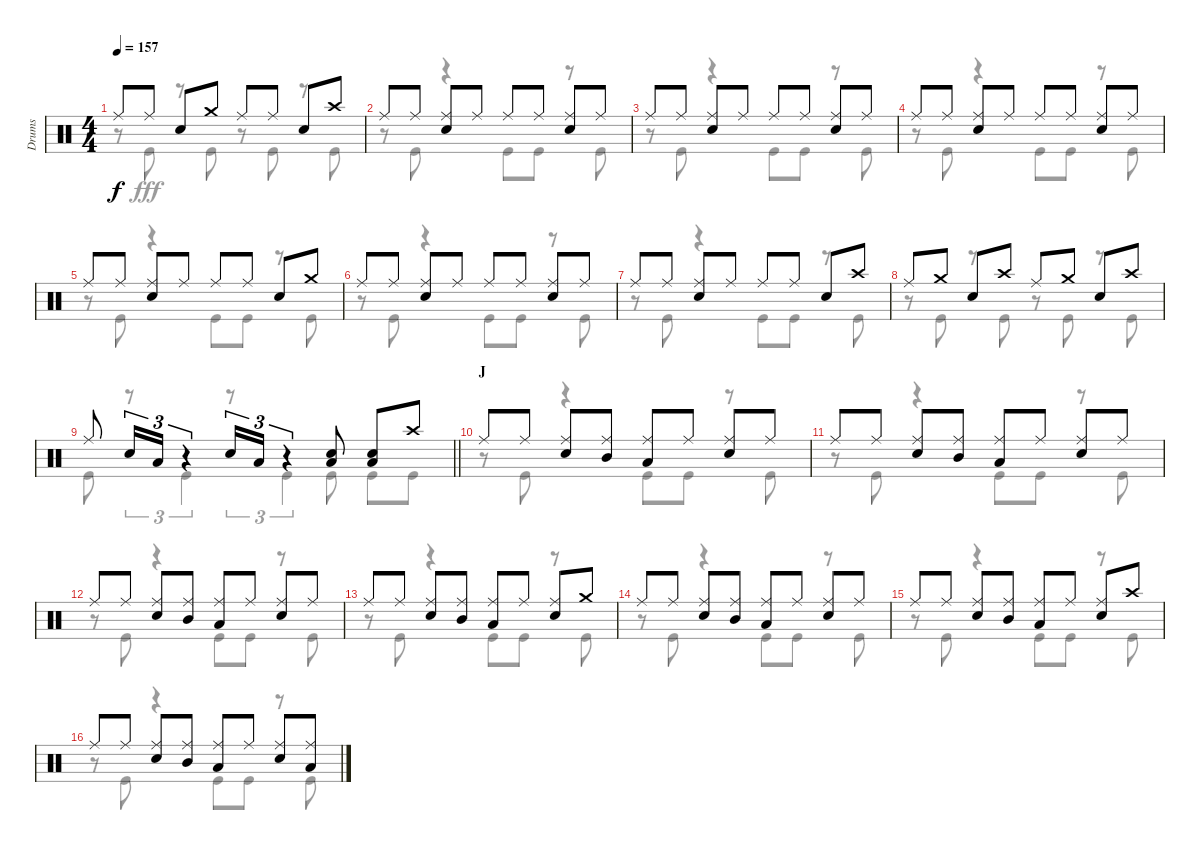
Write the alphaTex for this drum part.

\track ("Drums" "Drums") {instrument percussion}
\staff {score}
\articulation defaults
\voice
\ts (4 4)
\tempo 157
\clef neutral
\ks c "Ride (middle)".8{dy f} "Ride (middle)".8 "Snare (hit) 2".8 "Crash medium (hit)".8 "Ride (middle)".8 "Ride (middle)".8 "Snare (hit) 2".8 "Crash high (hit)".8
|
"Ride (middle)".8 "Ride (middle)".8 ("Ride (middle)" "Snare (hit) 2").8 "Ride (middle)".8 "Ride (middle)".8 "Ride (middle)".8 ("Ride (middle)" "Snare (hit) 2").8 "Ride (middle)".8 |
"Ride (middle)".8 "Ride (middle)".8 ("Ride (middle)" "Snare (hit) 2").8 "Ride (middle)".8 "Ride (middle)".8 "Ride (middle)".8 ("Ride (middle)" "Snare (hit) 2").8 "Ride (middle)".8 |
"Ride (middle)".8 "Ride (middle)".8 ("Ride (middle)" "Snare (hit) 2").8 "Ride (middle)".8 "Ride (middle)".8 "Ride (middle)".8 ("Ride (middle)" "Snare (hit) 2").8 "Ride (middle)".8 |
"Ride (middle)".8 "Ride (middle)".8 ("Ride (middle)" "Snare (hit) 2").8 "Ride (middle)".8 "Ride (middle)".8 "Ride (middle)".8 "Snare (hit) 2".8 "Crash medium (hit)".8 |
"Ride (middle)".8 "Ride (middle)".8 ("Ride (middle)" "Snare (hit) 2").8 "Ride (middle)".8 "Ride (middle)".8 "Ride (middle)".8 ("Ride (middle)" "Snare (hit) 2").8 "Ride (middle)".8 |
"Ride (middle)".8 "Ride (middle)".8 ("Ride (middle)" "Snare (hit) 2").8 "Ride (middle)".8 "Ride (middle)".8 "Ride (middle)".8 "Snare (hit) 2".8 "Crash high (hit)".8 |
"Ride (middle)".8 "Crash medium (hit)".8 "Snare (hit) 2".8 "Crash high (hit)".8 "Ride (middle)".8 "Crash medium (hit)".8 "Snare (hit) 2".8 "Crash high (hit)".8 |
\barLineRight lightlight "Ride (middle)".8 "Snare (hit) 2".16{tu (3 2)} "Low Tom (hit)".16{tu (3 2)}
r.4{tu (3 2)} "Snare (hit) 2".16{tu (3 2)} "Low Tom (hit)".16{tu (3 2)} r.4{tu (3 2)} ("Snare (hit) 2" "Low Tom (hit)").8 ("Snare (hit) 2" "Low Tom (hit)").8 "Crash high (hit)".8 |
\section ("" "J")
"Ride (middle)".8 "Ride (middle)".8 ("Ride (middle)" "Snare (hit) 2").8 ("Ride (middle)" "Mid Tom (hit)").8 ("Ride (middle)" "Low Tom (hit)").8 "Ride (middle)".8 ("Ride (middle)" "Snare (hit) 2").8 "Ride (middle)".8 |
"Ride (middle)".8 "Ride (middle)".8 ("Ride (middle)" "Snare (hit) 2").8 ("Ride (middle)" "Mid Tom (hit)").8 ("Ride (middle)" "Low Tom (hit)").8 "Ride (middle)".8 ("Ride (middle)" "Snare (hit) 2").8 "Ride (middle)".8 |
"Ride (middle)".8 "Ride (middle)".8 ("Ride (middle)" "Snare (hit) 2").8 ("Ride (middle)" "Mid Tom (hit)").8 ("Ride (middle)" "Low Tom (hit)").8 "Ride (middle)".8 ("Ride (middle)" "Snare (hit) 2").8 "Ride (middle)".8 |
"Ride (middle)".8 "Ride (middle)".8 ("Ride (middle)" "Snare (hit) 2").8 ("Ride (middle)" "Mid Tom (hit)").8 ("Ride (middle)" "Low Tom (hit)").8 "Ride (middle)".8 ("Ride (middle)" "Snare (hit) 2").8 "Crash medium (hit)".8 |
"Ride (middle)".8 "Ride (middle)".8 ("Ride (middle)" "Snare (hit) 2").8 ("Ride (middle)" "Mid Tom (hit)").8 ("Ride (middle)" "Low Tom (hit)").8 "Ride (middle)".8 ("Ride (middle)" "Snare (hit) 2").8 "Ride (middle)".8 |
"Ride (middle)".8 "Ride (middle)".8 ("Ride (middle)" "Snare (hit) 2").8 ("Ride (middle)" "Mid Tom (hit)").8 ("Ride (middle)" "Low Tom (hit)").8 "Ride (middle)".8 ("Ride (middle)" "Snare (hit) 2").8 "Crash high (hit)".8 |
"Ride (middle)".8 "Ride (middle)".8 ("Ride (middle)" "Snare (hit) 2").8 ("Ride (middle)" "Mid Tom (hit)").8 ("Ride (middle)" "Low Tom (hit)").8 "Ride (middle)".8 ("Ride (middle)" "Snare (hit) 2").8 ("Ride (middle)" "Low Tom (hit)").8
\voice
\clef neutral
\ottava regular
\simile none
\ks c
r.8{dy fff} "Kick (hit)".8 r.8 "Kick (hit)".8 r.8 "Kick (hit)".8 r.8 "Kick (hit)".8 |
r.8 "Kick (hit)".8 r.4 "Kick (hit)".8 "Kick (hit)".8 r.8 "Kick (hit)".8 |
r.8 "Kick (hit)".8 r.4 "Kick (hit)".8 "Kick (hit)".8 r.8 "Kick (hit)".8 |
r.8 "Kick (hit)".8 r.4 "Kick (hit)".8 "Kick (hit)".8 r.8 "Kick (hit)".8 |
r.8 "Kick (hit)".8 r.4 "Kick (hit)".8 "Kick (hit)".8 r.8 "Kick (hit)".8 |
r.8 "Kick (hit)".8 r.4 "Kick (hit)".8 "Kick (hit)".8 r.8 "Kick (hit)".8 |
r.8 "Kick (hit)".8 r.4 "Kick (hit)".8 "Kick (hit)".8 r.8 "Kick (hit)".8 |
r.8 "Kick (hit)".8 r.8 "Kick (hit)".8 r.8 "Kick (hit)".8 r.8 "Kick (hit)".8 |
\barLineRight lightlight "Kick (hit)".8
r.8{tu (3 2)} "Kick (hit)".4{tu (3 2)} r.8{tu (3 2)} "Kick (hit)".4{tu (3 2)} "Kick (hit)".8 "Kick (hit)".8 "Kick (hit)".8 |
r.8 "Kick (hit)".8 r.4 "Kick (hit)".8 "Kick (hit)".8 r.8 "Kick (hit)".8 |
r.8 "Kick (hit)".8 r.4 "Kick (hit)".8 "Kick (hit)".8 r.8 "Kick (hit)".8 |
r.8 "Kick (hit)".8 r.4 "Kick (hit)".8 "Kick (hit)".8 r.8 "Kick (hit)".8 |
r.8 "Kick (hit)".8 r.4 "Kick (hit)".8 "Kick (hit)".8 r.8 "Kick (hit)".8 |
r.8 "Kick (hit)".8 r.4 "Kick (hit)".8 "Kick (hit)".8 r.8 "Kick (hit)".8 |
r.8 "Kick (hit)".8 r.4 "Kick (hit)".8 "Kick (hit)".8 r.8 "Kick (hit)".8 |
r.8 "Kick (hit)".8 r.4 "Kick (hit)".8 "Kick (hit)".8 r.8 "Kick (hit)".8
